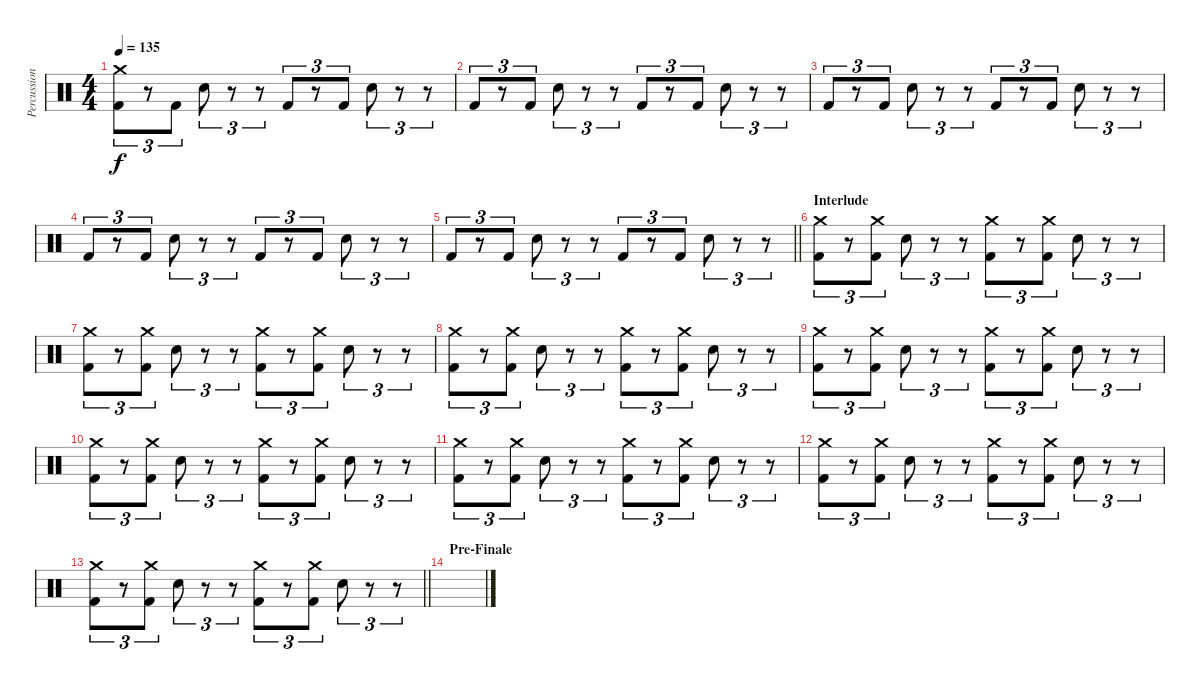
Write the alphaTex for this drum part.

\track ("Percussion" "Percussion") {instrument percussion}
\staff {score}
\articulation defaults
\ts (4 4)
\tempo 135
\clef neutral
\ks c
("Crash medium (hit)" "Kick (hit) 2").8{tu (3 2) dy f} r.8{tu (3 2)} "Kick (hit) 2".8{tu (3 2)} "Electric Snare (hit)".8{tu (3 2)} r.8{tu (3 2)} r.8{tu (3 2)} "Kick (hit) 2".8{tu (3 2)} r.8{tu (3 2)} "Kick (hit) 2".8{tu (3 2)} "Electric Snare (hit)".8{tu (3 2)} r.8{tu (3 2)} r.8{tu (3 2)} |
"Kick (hit) 2".8{tu (3 2)} r.8{tu (3 2)} "Kick (hit) 2".8{tu (3 2)} "Electric Snare (hit)".8{tu (3 2)} r.8{tu (3 2)} r.8{tu (3 2)} "Kick (hit) 2".8{tu (3 2)} r.8{tu (3 2)} "Kick (hit) 2".8{tu (3 2)} "Electric Snare (hit)".8{tu (3 2)} r.8{tu (3 2)} r.8{tu (3 2)} |
"Kick (hit) 2".8{tu (3 2)} r.8{tu (3 2)} "Kick (hit) 2".8{tu (3 2)} "Electric Snare (hit)".8{tu (3 2)} r.8{tu (3 2)} r.8{tu (3 2)} "Kick (hit) 2".8{tu (3 2)} r.8{tu (3 2)} "Kick (hit) 2".8{tu (3 2)} "Electric Snare (hit)".8{tu (3 2)} r.8{tu (3 2)} r.8{tu (3 2)} |
"Kick (hit) 2".8{tu (3 2)} r.8{tu (3 2)} "Kick (hit) 2".8{tu (3 2)} "Electric Snare (hit)".8{tu (3 2)} r.8{tu (3 2)} r.8{tu (3 2)} "Kick (hit) 2".8{tu (3 2)} r.8{tu (3 2)} "Kick (hit) 2".8{tu (3 2)} "Electric Snare (hit)".8{tu (3 2)} r.8{tu (3 2)} r.8{tu (3 2)} |
\barLineRight lightlight "Kick (hit) 2".8{tu (3 2)}
r.8{tu (3 2)} "Kick (hit) 2".8{tu (3 2)} "Electric Snare (hit)".8{tu (3 2)} r.8{tu (3 2)} r.8{tu (3 2)} "Kick (hit) 2".8{tu (3 2)} r.8{tu (3 2)} "Kick (hit) 2".8{tu (3 2)} "Electric Snare (hit)".8{tu (3 2)} r.8{tu (3 2)} r.8{tu (3 2)} |
\section ("" "Interlude")
("Crash medium (hit)" "Kick (hit) 2").8{tu (3 2)} r.8{tu (3 2)} ("Crash medium (hit)" "Kick (hit) 2").8{tu (3 2)} "Electric Snare (hit)".8{tu (3 2)} r.8{tu (3 2)} r.8{tu (3 2)} ("Crash medium (hit)" "Kick (hit) 2").8{tu (3 2)} r.8{tu (3 2)} ("Crash medium (hit)" "Kick (hit) 2").8{tu (3 2)} "Electric Snare (hit)".8{tu (3 2)} r.8{tu (3 2)} r.8{tu (3 2)} |
("Crash medium (hit)" "Kick (hit) 2").8{tu (3 2)} r.8{tu (3 2)} ("Crash medium (hit)" "Kick (hit) 2").8{tu (3 2)} "Electric Snare (hit)".8{tu (3 2)} r.8{tu (3 2)} r.8{tu (3 2)} ("Crash medium (hit)" "Kick (hit) 2").8{tu (3 2)} r.8{tu (3 2)} ("Crash medium (hit)" "Kick (hit) 2").8{tu (3 2)} "Electric Snare (hit)".8{tu (3 2)} r.8{tu (3 2)} r.8{tu (3 2)} |
("Crash medium (hit)" "Kick (hit) 2").8{tu (3 2)} r.8{tu (3 2)} ("Crash medium (hit)" "Kick (hit) 2").8{tu (3 2)} "Electric Snare (hit)".8{tu (3 2)} r.8{tu (3 2)} r.8{tu (3 2)} ("Crash medium (hit)" "Kick (hit) 2").8{tu (3 2)} r.8{tu (3 2)} ("Crash medium (hit)" "Kick (hit) 2").8{tu (3 2)} "Electric Snare (hit)".8{tu (3 2)} r.8{tu (3 2)} r.8{tu (3 2)} |
("Crash medium (hit)" "Kick (hit) 2").8{tu (3 2)} r.8{tu (3 2)} ("Crash medium (hit)" "Kick (hit) 2").8{tu (3 2)} "Electric Snare (hit)".8{tu (3 2)} r.8{tu (3 2)} r.8{tu (3 2)} ("Crash medium (hit)" "Kick (hit) 2").8{tu (3 2)} r.8{tu (3 2)} ("Crash medium (hit)" "Kick (hit) 2").8{tu (3 2)} "Electric Snare (hit)".8{tu (3 2)} r.8{tu (3 2)} r.8{tu (3 2)} |
("Crash medium (hit)" "Kick (hit) 2").8{tu (3 2)} r.8{tu (3 2)} ("Crash medium (hit)" "Kick (hit) 2").8{tu (3 2)} "Electric Snare (hit)".8{tu (3 2)} r.8{tu (3 2)} r.8{tu (3 2)} ("Crash medium (hit)" "Kick (hit) 2").8{tu (3 2)} r.8{tu (3 2)} ("Crash medium (hit)" "Kick (hit) 2").8{tu (3 2)} "Electric Snare (hit)".8{tu (3 2)} r.8{tu (3 2)} r.8{tu (3 2)} |
("Crash medium (hit)" "Kick (hit) 2").8{tu (3 2)} r.8{tu (3 2)} ("Crash medium (hit)" "Kick (hit) 2").8{tu (3 2)} "Electric Snare (hit)".8{tu (3 2)} r.8{tu (3 2)} r.8{tu (3 2)} ("Crash medium (hit)" "Kick (hit) 2").8{tu (3 2)} r.8{tu (3 2)} ("Crash medium (hit)" "Kick (hit) 2").8{tu (3 2)} "Electric Snare (hit)".8{tu (3 2)} r.8{tu (3 2)} r.8{tu (3 2)} |
("Crash medium (hit)" "Kick (hit) 2").8{tu (3 2)} r.8{tu (3 2)} ("Crash medium (hit)" "Kick (hit) 2").8{tu (3 2)} "Electric Snare (hit)".8{tu (3 2)} r.8{tu (3 2)} r.8{tu (3 2)} ("Crash medium (hit)" "Kick (hit) 2").8{tu (3 2)} r.8{tu (3 2)} ("Crash medium (hit)" "Kick (hit) 2").8{tu (3 2)} "Electric Snare (hit)".8{tu (3 2)} r.8{tu (3 2)} r.8{tu (3 2)} |
\barLineRight lightlight
("Crash medium (hit)" "Kick (hit) 2").8{tu (3 2)} r.8{tu (3 2)} ("Crash medium (hit)" "Kick (hit) 2").8{tu (3 2)} "Electric Snare (hit)".8{tu (3 2)} r.8{tu (3 2)} r.8{tu (3 2)} ("Crash medium (hit)" "Kick (hit) 2").8{tu (3 2)} r.8{tu (3 2)} ("Crash medium (hit)" "Kick (hit) 2").8{tu (3 2)} "Electric Snare (hit)".8{tu (3 2)} r.8{tu (3 2)} r.8{tu (3 2)} |
\section ("" "Pre-Finale")
